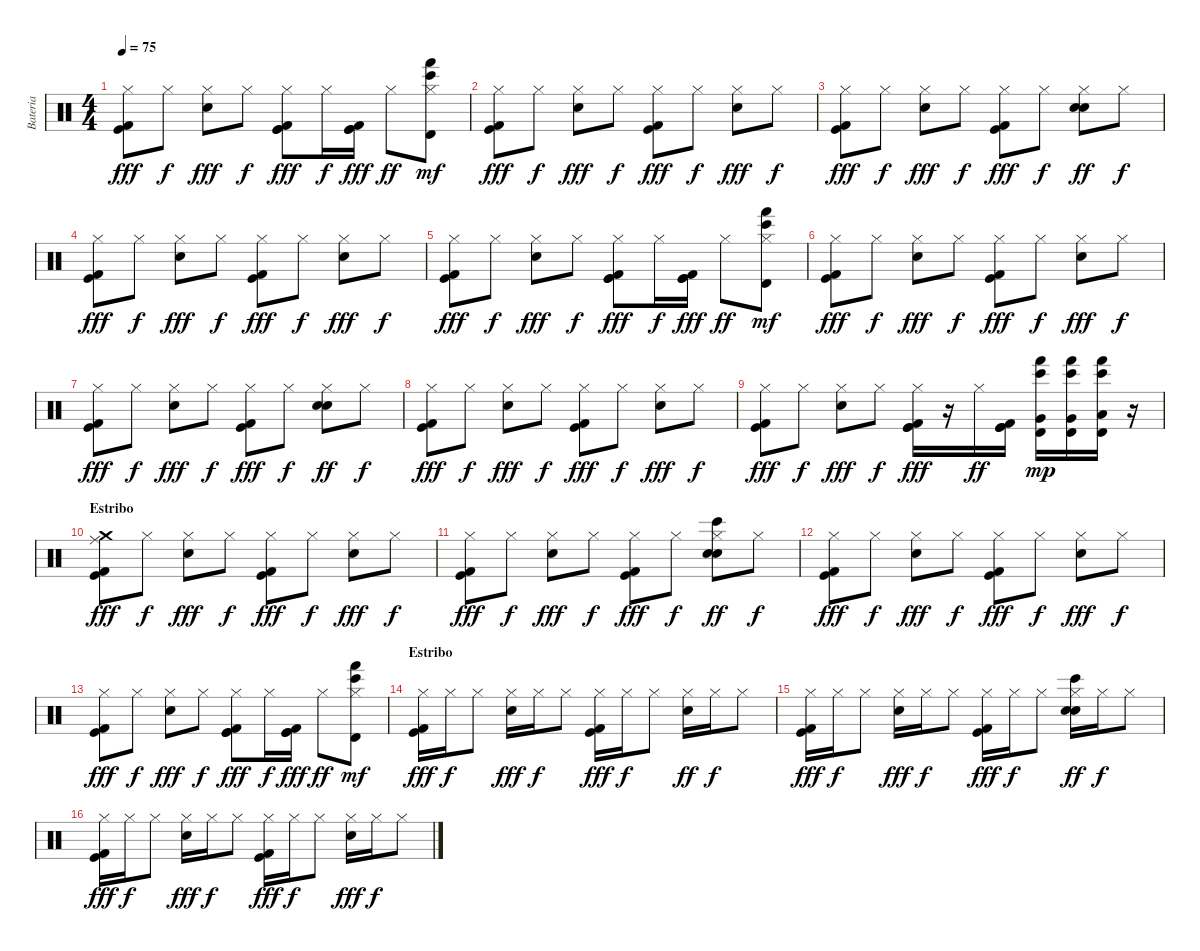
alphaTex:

\track ("Bateria" "Bateria") {instrument percussion}
\staff {score}
\articulation defaults
\ts (4 4)
\tempo 75
\clef neutral
\ks c
("Hi-Hat (closed)" "Kick (hit) 2" "Kick (hit)").8{dy fff} "Hi-Hat (closed)".8{dy f} ("Hi-Hat (closed)" "Snare (hit) 2").8{dy fff} "Hi-Hat (closed)".8{dy f} ("Hi-Hat (closed)" "Kick (hit)" "Kick (hit) 2" "Kick (hit)").8{dy fff} "Hi-Hat (closed)".16{dy f} ("Kick (hit)" "Kick (hit) 2" "Kick (hit)").16{dy fff} "Hi-Hat (closed)".8{dy ff} ("Hi-Hat (closed)" "Hand (hit)" "Bongo High (hit)" "Timbale high (hit)").8{dy mf} |
("Hi-Hat (closed)" "Kick (hit) 2" "Kick (hit)").8{dy fff} "Hi-Hat (closed)".8{dy f} ("Hi-Hat (closed)" "Snare (hit) 2").8{dy fff} "Hi-Hat (closed)".8{dy f} ("Hi-Hat (closed)" "Kick (hit) 2" "Kick (hit)").8{dy fff} "Hi-Hat (closed)".8{dy f} ("Hi-Hat (closed)" "Snare (hit) 2").8{dy fff} "Hi-Hat (closed)".8{dy f} |
("Hi-Hat (closed)" "Kick (hit) 2" "Kick (hit)").8{dy fff} "Hi-Hat (closed)".8{dy f} ("Hi-Hat (closed)" "Snare (hit) 2").8{dy fff} "Hi-Hat (closed)".8{dy f} ("Hi-Hat (closed)" "Kick (hit) 2" "Kick (hit)").8{dy fff} "Hi-Hat (closed)".8{dy f} ("Hi-Hat (closed)" "Snare (hit) 2" "Electric Snare (hit)").8{dy ff} "Hi-Hat (closed)".8{dy f} |
("Hi-Hat (closed)" "Kick (hit) 2" "Kick (hit)").8{dy fff} "Hi-Hat (closed)".8{dy f} ("Hi-Hat (closed)" "Snare (hit) 2").8{dy fff} "Hi-Hat (closed)".8{dy f} ("Hi-Hat (closed)" "Kick (hit) 2" "Kick (hit)").8{dy fff} "Hi-Hat (closed)".8{dy f} ("Hi-Hat (closed)" "Snare (hit) 2").8{dy fff} "Hi-Hat (closed)".8{dy f} |
("Hi-Hat (closed)" "Kick (hit) 2" "Kick (hit)").8{dy fff} "Hi-Hat (closed)".8{dy f} ("Hi-Hat (closed)" "Snare (hit) 2").8{dy fff} "Hi-Hat (closed)".8{dy f} ("Hi-Hat (closed)" "Kick (hit)" "Kick (hit) 2" "Kick (hit)").8{dy fff} "Hi-Hat (closed)".16{dy f} ("Kick (hit)" "Kick (hit) 2" "Kick (hit)").16{dy fff} "Hi-Hat (closed)".8{dy ff} ("Hi-Hat (closed)" "Hand (hit)" "Bongo High (hit)" "Timbale high (hit)").8{dy mf} |
("Hi-Hat (closed)" "Kick (hit) 2" "Kick (hit)").8{dy fff} "Hi-Hat (closed)".8{dy f} ("Hi-Hat (closed)" "Snare (hit) 2").8{dy fff} "Hi-Hat (closed)".8{dy f} ("Hi-Hat (closed)" "Kick (hit) 2" "Kick (hit)").8{dy fff} "Hi-Hat (closed)".8{dy f} ("Hi-Hat (closed)" "Snare (hit) 2").8{dy fff} "Hi-Hat (closed)".8{dy f} |
("Hi-Hat (closed)" "Kick (hit) 2" "Kick (hit)").8{dy fff} "Hi-Hat (closed)".8{dy f} ("Hi-Hat (closed)" "Snare (hit) 2").8{dy fff} "Hi-Hat (closed)".8{dy f} ("Hi-Hat (closed)" "Kick (hit) 2" "Kick (hit)").8{dy fff} "Hi-Hat (closed)".8{dy f} ("Hi-Hat (closed)" "Snare (hit) 2" "Electric Snare (hit)").8{dy ff} "Hi-Hat (closed)".8{dy f} |
("Hi-Hat (closed)" "Kick (hit) 2" "Kick (hit)").8{dy fff} "Hi-Hat (closed)".8{dy f} ("Hi-Hat (closed)" "Snare (hit) 2").8{dy fff} "Hi-Hat (closed)".8{dy f} ("Hi-Hat (closed)" "Kick (hit) 2" "Kick (hit)").8{dy fff} "Hi-Hat (closed)".8{dy f} ("Hi-Hat (closed)" "Snare (hit) 2").8{dy fff} "Hi-Hat (closed)".8{dy f} |
("Hi-Hat (closed)" "Kick (hit) 2" "Kick (hit)").8{dy fff} "Hi-Hat (closed)".8{dy f} ("Hi-Hat (closed)" "Snare (hit) 2").8{dy fff} "Hi-Hat (closed)".8{dy f} ("Hi-Hat (closed)" "Kick (hit) 2" "Kick (hit)" "Kick (hit)").16{dy fff} r.16 "Hi-Hat (closed)".16{dy ff} ("Kick (hit) 2" "Kick (hit)" "Kick (hit)").16 ("Very Low Tom (hit)" "Hand (hit)" "Bongo High (hit)" "Timbale high (hit)").16{dy mp} ("Very Low Tom (hit)" "Hand (hit)" "Bongo High (hit)" "Timbale high (hit)").16 ("Low Tom (hit)" "Hand (hit)" "Bongo High (hit)" "Timbale high (hit)").16 r.16 |
\section ("" "Estribo")
("Crash medium (hit)" "Ride (middle)" "Kick (hit) 2" "Kick (hit)").8{dy fff} "Hi-Hat (closed)".8{dy f} ("Hi-Hat (closed)" "Snare (hit) 2").8{dy fff} "Hi-Hat (closed)".8{dy f} ("Hi-Hat (closed)" "Kick (hit) 2" "Kick (hit)").8{dy fff} "Hi-Hat (closed)".8{dy f} ("Hi-Hat (closed)" "Snare (hit) 2").8{dy fff} "Hi-Hat (closed)".8{dy f} |
("Hi-Hat (closed)" "Kick (hit) 2" "Kick (hit)").8{dy fff} "Hi-Hat (closed)".8{dy f} ("Hi-Hat (closed)" "Snare (hit) 2").8{dy fff} "Hi-Hat (closed)".8{dy f} ("Hi-Hat (closed)" "Kick (hit) 2" "Kick (hit)").8{dy fff} "Hi-Hat (closed)".8{dy f} ("Hi-Hat (closed)" "Bongo High (hit)" "Snare (hit) 2" "Electric Snare (hit)").8{dy ff} "Hi-Hat (closed)".8{dy f} |
("Hi-Hat (closed)" "Kick (hit) 2" "Kick (hit)").8{dy fff} "Hi-Hat (closed)".8{dy f} ("Hi-Hat (closed)" "Snare (hit) 2").8{dy fff} "Hi-Hat (closed)".8{dy f} ("Hi-Hat (closed)" "Kick (hit) 2" "Kick (hit)").8{dy fff} "Hi-Hat (closed)".8{dy f} ("Hi-Hat (closed)" "Snare (hit) 2").8{dy fff} "Hi-Hat (closed)".8{dy f} |
("Hi-Hat (closed)" "Kick (hit) 2" "Kick (hit)").8{dy fff} "Hi-Hat (closed)".8{dy f} ("Hi-Hat (closed)" "Snare (hit) 2").8{dy fff} "Hi-Hat (closed)".8{dy f} ("Hi-Hat (closed)" "Kick (hit) 2" "Kick (hit)" "Kick (hit)").8{dy fff} "Hi-Hat (closed)".16{dy f} ("Kick (hit) 2" "Kick (hit)" "Kick (hit)").16{dy fff} "Hi-Hat (closed)".8{dy ff} ("Hi-Hat (closed)" "Hand (hit)" "Bongo High (hit)" "Timbale high (hit)").8{dy mf} |
\section ("" "Estribo")
("Hi-Hat (closed)" "Kick (hit) 2" "Kick (hit)").16{dy fff} "Hi-Hat (closed)".16{dy f} "Hi-Hat (closed)".8 ("Hi-Hat (closed)" "Snare (hit) 2").16{dy fff} "Hi-Hat (closed)".16{dy f} "Hi-Hat (closed)".8 ("Hi-Hat (closed)" "Kick (hit) 2" "Kick (hit)").16{dy fff} "Hi-Hat (closed)".16{dy f} "Hi-Hat (closed)".8 ("Hi-Hat (closed)" "Snare (hit) 2").16{dy ff} "Hi-Hat (closed)".16{dy f} "Hi-Hat (closed)".8 |
("Hi-Hat (closed)" "Kick (hit) 2" "Kick (hit)").16{dy fff} "Hi-Hat (closed)".16{dy f} "Hi-Hat (closed)".8 ("Hi-Hat (closed)" "Snare (hit) 2").16{dy fff} "Hi-Hat (closed)".16{dy f} "Hi-Hat (closed)".8 ("Hi-Hat (closed)" "Kick (hit) 2" "Kick (hit)").16{dy fff} "Hi-Hat (closed)".16{dy f} "Hi-Hat (closed)".8 ("Hi-Hat (closed)" "Bongo High (hit)" "Snare (hit) 2" "Electric Snare (hit)").16{dy ff} "Hi-Hat (closed)".16{dy f} "Hi-Hat (closed)".8 |
("Hi-Hat (closed)" "Kick (hit) 2" "Kick (hit)").16{dy fff} "Hi-Hat (closed)".16{dy f} "Hi-Hat (closed)".8 ("Hi-Hat (closed)" "Snare (hit) 2").16{dy fff} "Hi-Hat (closed)".16{dy f} "Hi-Hat (closed)".8 ("Hi-Hat (closed)" "Kick (hit) 2" "Kick (hit)").16{dy fff} "Hi-Hat (closed)".16{dy f} "Hi-Hat (closed)".8 ("Hi-Hat (closed)" "Snare (hit) 2").16{dy fff} "Hi-Hat (closed)".16{dy f} "Hi-Hat (closed)".8
